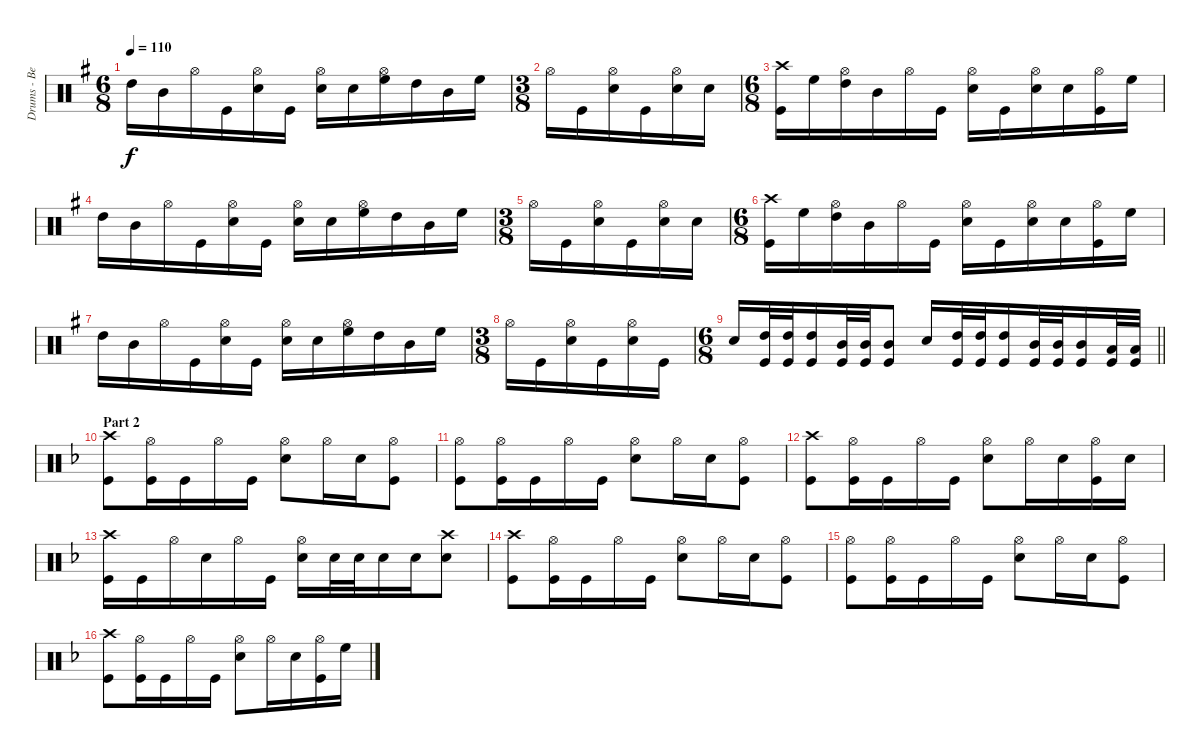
\track ("Drums - Ben Johnston" "Drums - Be") {instrument percussion}
\staff {score}
\articulation defaults
\ts (6 8)
\tempo 110
\clef neutral
\ks g "High Tom (hit)".16{dy f} "Mid Tom (hit)".16 "Hi-Hat (open)".16 "Kick (hit)".16
("Hi-Hat (open)" "Snare (hit) 2").16 "Kick (hit)".16 ("Hi-Hat (open)" "Snare (hit) 2").16 "Snare (hit) 2".16 ("Hi-Hat (open)" "High Floor Tom (hit)").16 "High Tom (hit)".16 "Mid Tom (hit)".16 "High Floor Tom (hit)".16 |
\ts (3 8)
"Hi-Hat (open)".16 "Kick (hit)".16 ("Hi-Hat (open)" "Snare (hit) 2").16 "Kick (hit)".16 ("Hi-Hat (open)" "Snare (hit) 2").16 "Snare (hit) 2".16 |
\ts (6 8)
("Crash high (hit)" "Kick (hit)").16 "High Floor Tom (hit)".16 ("Hi-Hat (open)" "High Tom (hit)").16 "Mid Tom (hit)".16 "Hi-Hat (open)".16 "Kick (hit)".16 ("Hi-Hat (open)" "Snare (hit) 2").16 "Kick (hit)".16 ("Hi-Hat (open)" "Snare (hit) 2").16 "Snare (hit) 2".16 ("Hi-Hat (open)" "Kick (hit)").16 "High Floor Tom (hit)".16 |
"High Tom (hit)".16 "Mid Tom (hit)".16 "Hi-Hat (open)".16 "Kick (hit)".16 ("Hi-Hat (open)" "Snare (hit) 2").16 "Kick (hit)".16 ("Hi-Hat (open)" "Snare (hit) 2").16 "Snare (hit) 2".16 ("Hi-Hat (open)" "High Floor Tom (hit)").16 "High Tom (hit)".16 "Mid Tom (hit)".16 "High Floor Tom (hit)".16 |
\ts (3 8)
"Hi-Hat (open)".16 "Kick (hit)".16 ("Hi-Hat (open)" "Snare (hit) 2").16 "Kick (hit)".16 ("Hi-Hat (open)" "Snare (hit) 2").16 "Snare (hit) 2".16 |
\ts (6 8)
("Crash high (hit)" "Kick (hit)").16 "High Floor Tom (hit)".16 ("Hi-Hat (open)" "High Tom (hit)").16 "Mid Tom (hit)".16 "Hi-Hat (open)".16 "Kick (hit)".16 ("Hi-Hat (open)" "Snare (hit) 2").16 "Kick (hit)".16 ("Hi-Hat (open)" "Snare (hit) 2").16 "Snare (hit) 2".16 ("Hi-Hat (open)" "Kick (hit)").16 "High Floor Tom (hit)".16 |
"High Tom (hit)".16 "Mid Tom (hit)".16 "Hi-Hat (open)".16 "Kick (hit)".16 ("Hi-Hat (open)" "Snare (hit) 2").16 "Kick (hit)".16 ("Hi-Hat (open)" "Snare (hit) 2").16 "Snare (hit) 2".16 ("Hi-Hat (open)" "High Floor Tom (hit)").16 "High Tom (hit)".16 "Mid Tom (hit)".16 "High Floor Tom (hit)".16 |
\ts (3 8)
"Hi-Hat (open)".16 "Kick (hit)".16 ("Hi-Hat (open)" "Snare (hit) 2").16 "Kick (hit)".16 ("Hi-Hat (open)" "Snare (hit) 2").16 "Kick (hit)".16 |
\ts (6 8)
\barLineRight lightlight "Snare (hit) 2".16
("High Tom (hit)" "Kick (hit)").32 ("High Tom (hit)" "Kick (hit)").32 ("High Tom (hit)" "Kick (hit)").16 ("Mid Tom (hit)" "Kick (hit)").32 ("Mid Tom (hit)" "Kick (hit)").32 ("Mid Tom (hit)" "Kick (hit)").8 "Snare (hit) 2".16 ("High Tom (hit)" "Kick (hit)").32 ("High Tom (hit)" "Kick (hit)").32 ("High Tom (hit)" "Kick (hit)").16 ("Mid Tom (hit)" "Kick (hit)").32 ("Mid Tom (hit)" "Kick (hit)").32 ("Mid Tom (hit)" "Kick (hit)").16 ("Low Tom (hit)" "Kick (hit)").32 ("Low Tom (hit)" "Kick (hit)").32 |
\section ("" "Part 2")
\ks dminor
("Crash high (hit)" "Kick (hit)").8 ("Hi-Hat (open)" "Kick (hit)").16 "Kick (hit)".16 "Hi-Hat (open)".16 "Kick (hit)".16 ("Hi-Hat (open)" "Snare (hit) 2").8 "Hi-Hat (open)".16 "Snare (hit) 2".16 ("Hi-Hat (open)" "Kick (hit)").8 |
("Hi-Hat (open)" "Kick (hit)").8 ("Hi-Hat (open)" "Kick (hit)").16 "Kick (hit)".16 "Hi-Hat (open)".16 "Kick (hit)".16 ("Hi-Hat (open)" "Snare (hit) 2").8 "Hi-Hat (open)".16 "Snare (hit) 2".16 ("Hi-Hat (open)" "Kick (hit)").8 |
("Crash high (hit)" "Kick (hit)").8 ("Hi-Hat (open)" "Kick (hit)").16 "Kick (hit)".16 "Hi-Hat (open)".16 "Kick (hit)".16 ("Hi-Hat (open)" "Snare (hit) 2").8 "Hi-Hat (open)".16 "Snare (hit) 2".16 ("Hi-Hat (open)" "Kick (hit)").16 "Snare (hit) 2".16 |
("Crash high (hit)" "Kick (hit)").16 "Kick (hit)".16 "Hi-Hat (open)".16 "Snare (hit) 2".16 "Hi-Hat (open)".16 "Kick (hit)".16 ("Hi-Hat (open)" "Snare (hit) 2").16 "Snare (hit) 2".32 "Snare (hit) 2".32 "Snare (hit) 2".16 "Snare (hit) 2".16 ("Crash high (hit)" "Snare (hit) 2").8 |
("Crash high (hit)" "Kick (hit)").8 ("Hi-Hat (open)" "Kick (hit)").16 "Kick (hit)".16 "Hi-Hat (open)".16 "Kick (hit)".16 ("Hi-Hat (open)" "Snare (hit) 2").8 "Hi-Hat (open)".16 "Snare (hit) 2".16 ("Hi-Hat (open)" "Kick (hit)").8 |
("Hi-Hat (open)" "Kick (hit)").8 ("Hi-Hat (open)" "Kick (hit)").16 "Kick (hit)".16 "Hi-Hat (open)".16 "Kick (hit)".16 ("Hi-Hat (open)" "Snare (hit) 2").8 "Hi-Hat (open)".16 "Snare (hit) 2".16 ("Hi-Hat (open)" "Kick (hit)").8 |
("Crash high (hit)" "Kick (hit)").8 ("Hi-Hat (open)" "Kick (hit)").16 "Kick (hit)".16 "Hi-Hat (open)".16 "Kick (hit)".16 ("Hi-Hat (open)" "Snare (hit) 2").8 "Hi-Hat (open)".16 "Snare (hit) 2".16 ("Hi-Hat (open)" "Kick (hit)").16 "High Floor Tom (hit)".16
